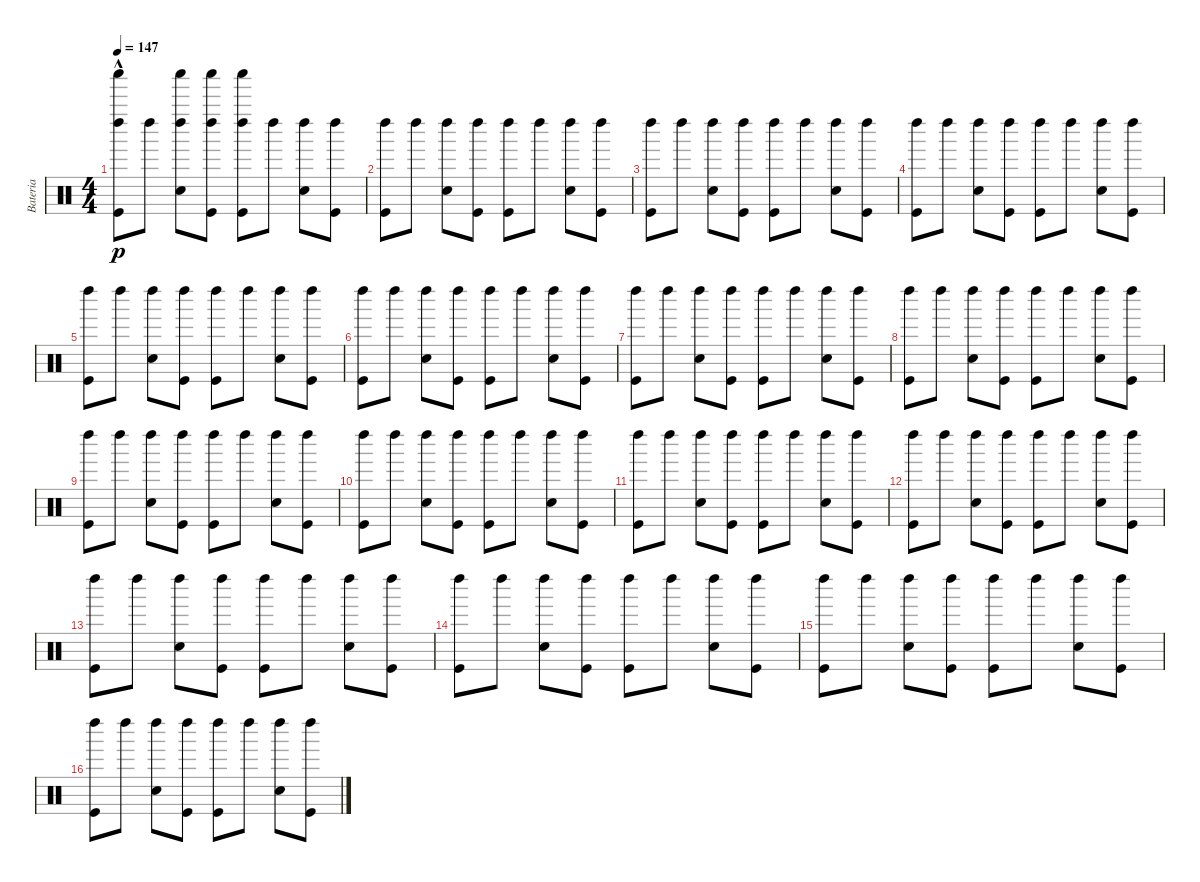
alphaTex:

\track ("Bateria" "Bateria") {instrument percussion}
\staff {score}
\articulation defaults
\ts (4 4)
\tempo 147
\clef neutral
\ks c
("Left Maraca (hit)" "Kick (hit)" "Shaker (hit)"{hac}).8{dy p} "Left Maraca (hit)".8 ("Shaker (hit)" "Snare (hit) 2" "Left Maraca (hit)").8 ("Shaker (hit)" "Left Maraca (hit)" "Kick (hit)").8 ("Shaker (hit)" "Left Maraca (hit)" "Kick (hit)").8 "Left Maraca (hit)".8 ("Snare (hit) 2" "Left Maraca (hit)").8 ("Kick (hit)" "Left Maraca (hit)").8 |
("Kick (hit)" "Left Maraca (hit)").8 "Left Maraca (hit)".8 ("Snare (hit) 2" "Left Maraca (hit)").8 ("Left Maraca (hit)" "Kick (hit)").8 ("Left Maraca (hit)" "Kick (hit)").8 "Left Maraca (hit)".8 ("Snare (hit) 2" "Left Maraca (hit)").8 ("Kick (hit)" "Left Maraca (hit)").8 |
("Left Maraca (hit)" "Kick (hit)").8 "Left Maraca (hit)".8 ("Snare (hit) 2" "Left Maraca (hit)").8 ("Left Maraca (hit)" "Kick (hit)").8 ("Left Maraca (hit)" "Kick (hit)").8 "Left Maraca (hit)".8 ("Snare (hit) 2" "Left Maraca (hit)").8 ("Kick (hit)" "Left Maraca (hit)").8 |
("Kick (hit)" "Left Maraca (hit)").8 "Left Maraca (hit)".8 ("Snare (hit) 2" "Left Maraca (hit)").8 ("Left Maraca (hit)" "Kick (hit)").8 ("Left Maraca (hit)" "Kick (hit)").8 "Left Maraca (hit)".8 ("Snare (hit) 2" "Left Maraca (hit)").8 ("Kick (hit)" "Left Maraca (hit)").8 |
("Left Maraca (hit)" "Kick (hit)").8 "Left Maraca (hit)".8 ("Snare (hit) 2" "Left Maraca (hit)").8 ("Left Maraca (hit)" "Kick (hit)").8 ("Left Maraca (hit)" "Kick (hit)").8 "Left Maraca (hit)".8 ("Snare (hit) 2" "Left Maraca (hit)").8 ("Kick (hit)" "Left Maraca (hit)").8 |
("Kick (hit)" "Left Maraca (hit)").8 "Left Maraca (hit)".8 ("Snare (hit) 2" "Left Maraca (hit)").8 ("Left Maraca (hit)" "Kick (hit)").8 ("Left Maraca (hit)" "Kick (hit)").8 "Left Maraca (hit)".8 ("Snare (hit) 2" "Left Maraca (hit)").8 ("Kick (hit)" "Left Maraca (hit)").8 |
("Left Maraca (hit)" "Kick (hit)").8 "Left Maraca (hit)".8 ("Snare (hit) 2" "Left Maraca (hit)").8 ("Left Maraca (hit)" "Kick (hit)").8 ("Left Maraca (hit)" "Kick (hit)").8 "Left Maraca (hit)".8 ("Snare (hit) 2" "Left Maraca (hit)").8 ("Kick (hit)" "Left Maraca (hit)").8 |
("Left Maraca (hit)" "Kick (hit)").8 "Left Maraca (hit)".8 ("Snare (hit) 2" "Left Maraca (hit)").8 ("Left Maraca (hit)" "Kick (hit)").8 ("Left Maraca (hit)" "Kick (hit)").8 "Left Maraca (hit)".8 ("Snare (hit) 2" "Left Maraca (hit)").8 ("Kick (hit)" "Left Maraca (hit)").8 |
("Left Maraca (hit)" "Kick (hit)").8 "Left Maraca (hit)".8 ("Snare (hit) 2" "Left Maraca (hit)").8 ("Left Maraca (hit)" "Kick (hit)").8 ("Left Maraca (hit)" "Kick (hit)").8 "Left Maraca (hit)".8 ("Snare (hit) 2" "Left Maraca (hit)").8 ("Kick (hit)" "Left Maraca (hit)").8 |
("Kick (hit)" "Left Maraca (hit)").8 "Left Maraca (hit)".8 ("Snare (hit) 2" "Left Maraca (hit)").8 ("Left Maraca (hit)" "Kick (hit)").8 ("Left Maraca (hit)" "Kick (hit)").8 "Left Maraca (hit)".8 ("Snare (hit) 2" "Left Maraca (hit)").8 ("Kick (hit)" "Left Maraca (hit)").8 |
("Left Maraca (hit)" "Kick (hit)").8 "Left Maraca (hit)".8 ("Snare (hit) 2" "Left Maraca (hit)").8 ("Left Maraca (hit)" "Kick (hit)").8 ("Left Maraca (hit)" "Kick (hit)").8 "Left Maraca (hit)".8 ("Snare (hit) 2" "Left Maraca (hit)").8 ("Kick (hit)" "Left Maraca (hit)").8 |
("Kick (hit)" "Left Maraca (hit)").8 "Left Maraca (hit)".8 ("Snare (hit) 2" "Left Maraca (hit)").8 ("Left Maraca (hit)" "Kick (hit)").8 ("Left Maraca (hit)" "Kick (hit)").8 "Left Maraca (hit)".8 ("Snare (hit) 2" "Left Maraca (hit)").8 ("Kick (hit)" "Left Maraca (hit)").8 |
("Left Maraca (hit)" "Kick (hit)").8 "Left Maraca (hit)".8 ("Snare (hit) 2" "Left Maraca (hit)").8 ("Left Maraca (hit)" "Kick (hit)").8 ("Left Maraca (hit)" "Kick (hit)").8 "Left Maraca (hit)".8 ("Snare (hit) 2" "Left Maraca (hit)").8 ("Kick (hit)" "Left Maraca (hit)").8 |
("Kick (hit)" "Left Maraca (hit)").8 "Left Maraca (hit)".8 ("Snare (hit) 2" "Left Maraca (hit)").8 ("Left Maraca (hit)" "Kick (hit)").8 ("Left Maraca (hit)" "Kick (hit)").8 "Left Maraca (hit)".8 ("Snare (hit) 2" "Left Maraca (hit)").8 ("Kick (hit)" "Left Maraca (hit)").8 |
("Left Maraca (hit)" "Kick (hit)").8 "Left Maraca (hit)".8 ("Left Maraca (hit)" "Snare (hit) 2").8 ("Left Maraca (hit)" "Kick (hit)").8 ("Left Maraca (hit)" "Kick (hit)").8 "Left Maraca (hit)".8 ("Snare (hit) 2" "Left Maraca (hit)").8 ("Kick (hit)" "Left Maraca (hit)").8 |
("Left Maraca (hit)" "Kick (hit)").8 "Left Maraca (hit)".8 ("Snare (hit) 2" "Left Maraca (hit)").8 ("Left Maraca (hit)" "Kick (hit)").8 ("Left Maraca (hit)" "Kick (hit)").8 "Left Maraca (hit)".8 ("Snare (hit) 2" "Left Maraca (hit)").8 ("Kick (hit)" "Left Maraca (hit)").8
